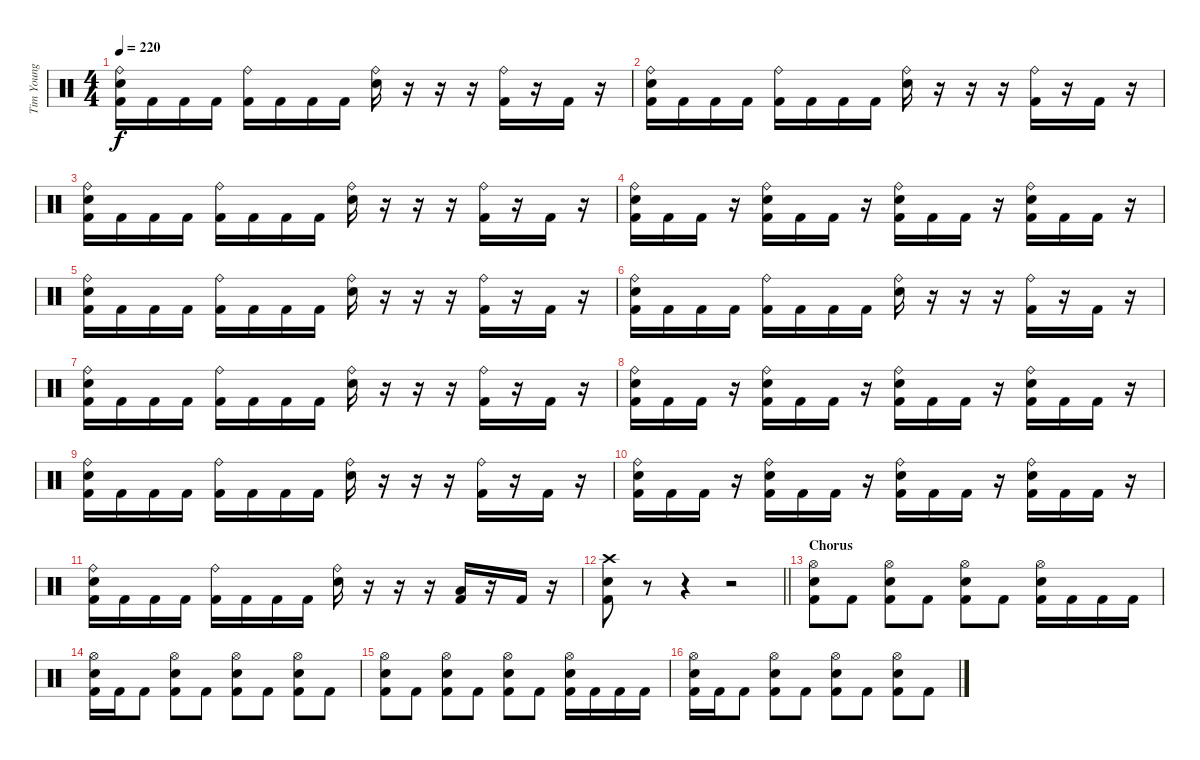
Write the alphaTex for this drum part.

\track ("Tim Young - Drums" "Tim Young ") {instrument percussion}
\staff {score}
\articulation defaults
\ts (4 4)
\tempo 220
\clef neutral
\ks c
("Ride (bell)" "Electric Snare (hit)" "Kick (hit) 2").16{dy f} "Kick (hit) 2".16 "Kick (hit) 2".16 "Kick (hit) 2".16 ("Ride (bell)" "Kick (hit) 2").16 "Kick (hit) 2".16 "Kick (hit) 2".16 "Kick (hit) 2".16 ("Ride (bell)" "Electric Snare (hit)").16 r.16 r.16 r.16 ("Ride (bell)" "Kick (hit) 2").16 r.16 "Kick (hit) 2".16 r.16 |
("Ride (bell)" "Electric Snare (hit)" "Kick (hit) 2").16 "Kick (hit) 2".16 "Kick (hit) 2".16 "Kick (hit) 2".16 ("Ride (bell)" "Kick (hit) 2").16 "Kick (hit) 2".16 "Kick (hit) 2".16 "Kick (hit) 2".16 ("Ride (bell)" "Electric Snare (hit)").16 r.16 r.16 r.16 ("Ride (bell)" "Kick (hit) 2").16 r.16 "Kick (hit) 2".16 r.16 |
("Ride (bell)" "Electric Snare (hit)" "Kick (hit) 2").16 "Kick (hit) 2".16 "Kick (hit) 2".16 "Kick (hit) 2".16 ("Ride (bell)" "Kick (hit) 2").16 "Kick (hit) 2".16 "Kick (hit) 2".16 "Kick (hit) 2".16 ("Ride (bell)" "Electric Snare (hit)").16 r.16 r.16 r.16 ("Ride (bell)" "Kick (hit) 2").16 r.16 "Kick (hit) 2".16 r.16 |
("Ride (bell)" "Electric Snare (hit)" "Kick (hit) 2").16 "Kick (hit) 2".16 "Kick (hit) 2".16 r.16 ("Ride (bell)" "Electric Snare (hit)" "Kick (hit) 2").16 "Kick (hit) 2".16 "Kick (hit) 2".16 r.16 ("Ride (bell)" "Electric Snare (hit)" "Kick (hit) 2").16 "Kick (hit) 2".16 "Kick (hit) 2".16 r.16 ("Ride (bell)" "Electric Snare (hit)" "Kick (hit) 2").16 "Kick (hit) 2".16 "Kick (hit) 2".16 r.16 |
("Ride (bell)" "Electric Snare (hit)" "Kick (hit) 2").16 "Kick (hit) 2".16 "Kick (hit) 2".16 "Kick (hit) 2".16 ("Ride (bell)" "Kick (hit) 2").16 "Kick (hit) 2".16 "Kick (hit) 2".16 "Kick (hit) 2".16 ("Ride (bell)" "Electric Snare (hit)").16 r.16 r.16 r.16 ("Ride (bell)" "Kick (hit) 2").16 r.16 "Kick (hit) 2".16 r.16 |
("Ride (bell)" "Electric Snare (hit)" "Kick (hit) 2").16 "Kick (hit) 2".16 "Kick (hit) 2".16 "Kick (hit) 2".16 ("Ride (bell)" "Kick (hit) 2").16 "Kick (hit) 2".16 "Kick (hit) 2".16 "Kick (hit) 2".16 ("Ride (bell)" "Electric Snare (hit)").16 r.16 r.16 r.16 ("Ride (bell)" "Kick (hit) 2").16 r.16 "Kick (hit) 2".16 r.16 |
("Ride (bell)" "Electric Snare (hit)" "Kick (hit) 2").16 "Kick (hit) 2".16 "Kick (hit) 2".16 "Kick (hit) 2".16 ("Ride (bell)" "Kick (hit) 2").16 "Kick (hit) 2".16 "Kick (hit) 2".16 "Kick (hit) 2".16 ("Ride (bell)" "Electric Snare (hit)").16 r.16 r.16 r.16 ("Ride (bell)" "Kick (hit) 2").16 r.16 "Kick (hit) 2".16 r.16 |
("Ride (bell)" "Electric Snare (hit)" "Kick (hit) 2").16 "Kick (hit) 2".16 "Kick (hit) 2".16 r.16 ("Ride (bell)" "Electric Snare (hit)" "Kick (hit) 2").16 "Kick (hit) 2".16 "Kick (hit) 2".16 r.16 ("Ride (bell)" "Electric Snare (hit)" "Kick (hit) 2").16 "Kick (hit) 2".16 "Kick (hit) 2".16 r.16 ("Ride (bell)" "Electric Snare (hit)" "Kick (hit) 2").16 "Kick (hit) 2".16 "Kick (hit) 2".16 r.16 |
("Ride (bell)" "Electric Snare (hit)" "Kick (hit) 2").16 "Kick (hit) 2".16 "Kick (hit) 2".16 "Kick (hit) 2".16 ("Ride (bell)" "Kick (hit) 2").16 "Kick (hit) 2".16 "Kick (hit) 2".16 "Kick (hit) 2".16 ("Ride (bell)" "Electric Snare (hit)").16 r.16 r.16 r.16 ("Ride (bell)" "Kick (hit) 2").16 r.16 "Kick (hit) 2".16 r.16 |
("Ride (bell)" "Electric Snare (hit)" "Kick (hit) 2").16 "Kick (hit) 2".16 "Kick (hit) 2".16 r.16 ("Ride (bell)" "Electric Snare (hit)" "Kick (hit) 2").16 "Kick (hit) 2".16 "Kick (hit) 2".16 r.16 ("Ride (bell)" "Electric Snare (hit)" "Kick (hit) 2").16 "Kick (hit) 2".16 "Kick (hit) 2".16 r.16 ("Ride (bell)" "Electric Snare (hit)" "Kick (hit) 2").16 "Kick (hit) 2".16 "Kick (hit) 2".16 r.16 |
("Ride (bell)" "Electric Snare (hit)" "Kick (hit) 2").16 "Kick (hit) 2".16 "Kick (hit) 2".16 "Kick (hit) 2".16 ("Ride (bell)" "Kick (hit) 2").16 "Kick (hit) 2".16 "Kick (hit) 2".16 "Kick (hit) 2".16 ("Ride (bell)" "Electric Snare (hit)").16 r.16 r.16 r.16 ("Low Tom (hit)" "Kick (hit) 2").16 r.16 "Kick (hit) 2".16 r.16 |
\barLineRight lightlight
("Crash high (hit)" "Electric Snare (hit)" "Kick (hit) 2").8 r.8 r.4 r.2 |
\section ("" "Chorus")
("Hi-Hat (open)" "Electric Snare (hit)" "Kick (hit) 2").8 "Kick (hit) 2".8 ("Hi-Hat (open)" "Electric Snare (hit)" "Kick (hit) 2").8 "Kick (hit) 2".8 ("Hi-Hat (open)" "Electric Snare (hit)" "Kick (hit) 2").8 "Kick (hit) 2".8 ("Hi-Hat (open)" "Electric Snare (hit)" "Kick (hit) 2").16 "Kick (hit) 2".16 "Kick (hit) 2".16 "Kick (hit) 2".16 |
("Hi-Hat (open)" "Electric Snare (hit)" "Kick (hit) 2").16 "Kick (hit) 2".16 "Kick (hit) 2".8 ("Hi-Hat (open)" "Electric Snare (hit)" "Kick (hit) 2").8 "Kick (hit) 2".8 ("Hi-Hat (open)" "Electric Snare (hit)" "Kick (hit) 2").8 "Kick (hit) 2".8 ("Hi-Hat (open)" "Electric Snare (hit)" "Kick (hit) 2").8 "Kick (hit) 2".8 |
("Hi-Hat (open)" "Electric Snare (hit)" "Kick (hit) 2").8 "Kick (hit) 2".8 ("Hi-Hat (open)" "Electric Snare (hit)" "Kick (hit) 2").8 "Kick (hit) 2".8 ("Hi-Hat (open)" "Electric Snare (hit)" "Kick (hit) 2").8 "Kick (hit) 2".8 ("Hi-Hat (open)" "Electric Snare (hit)" "Kick (hit) 2").16 "Kick (hit) 2".16 "Kick (hit) 2".16 "Kick (hit) 2".16 |
("Hi-Hat (open)" "Electric Snare (hit)" "Kick (hit) 2").16 "Kick (hit) 2".16 "Kick (hit) 2".8 ("Hi-Hat (open)" "Electric Snare (hit)" "Kick (hit) 2").8 "Kick (hit) 2".8 ("Hi-Hat (open)" "Electric Snare (hit)" "Kick (hit) 2").8 "Kick (hit) 2".8 ("Hi-Hat (open)" "Electric Snare (hit)" "Kick (hit) 2").8 "Kick (hit) 2".8
